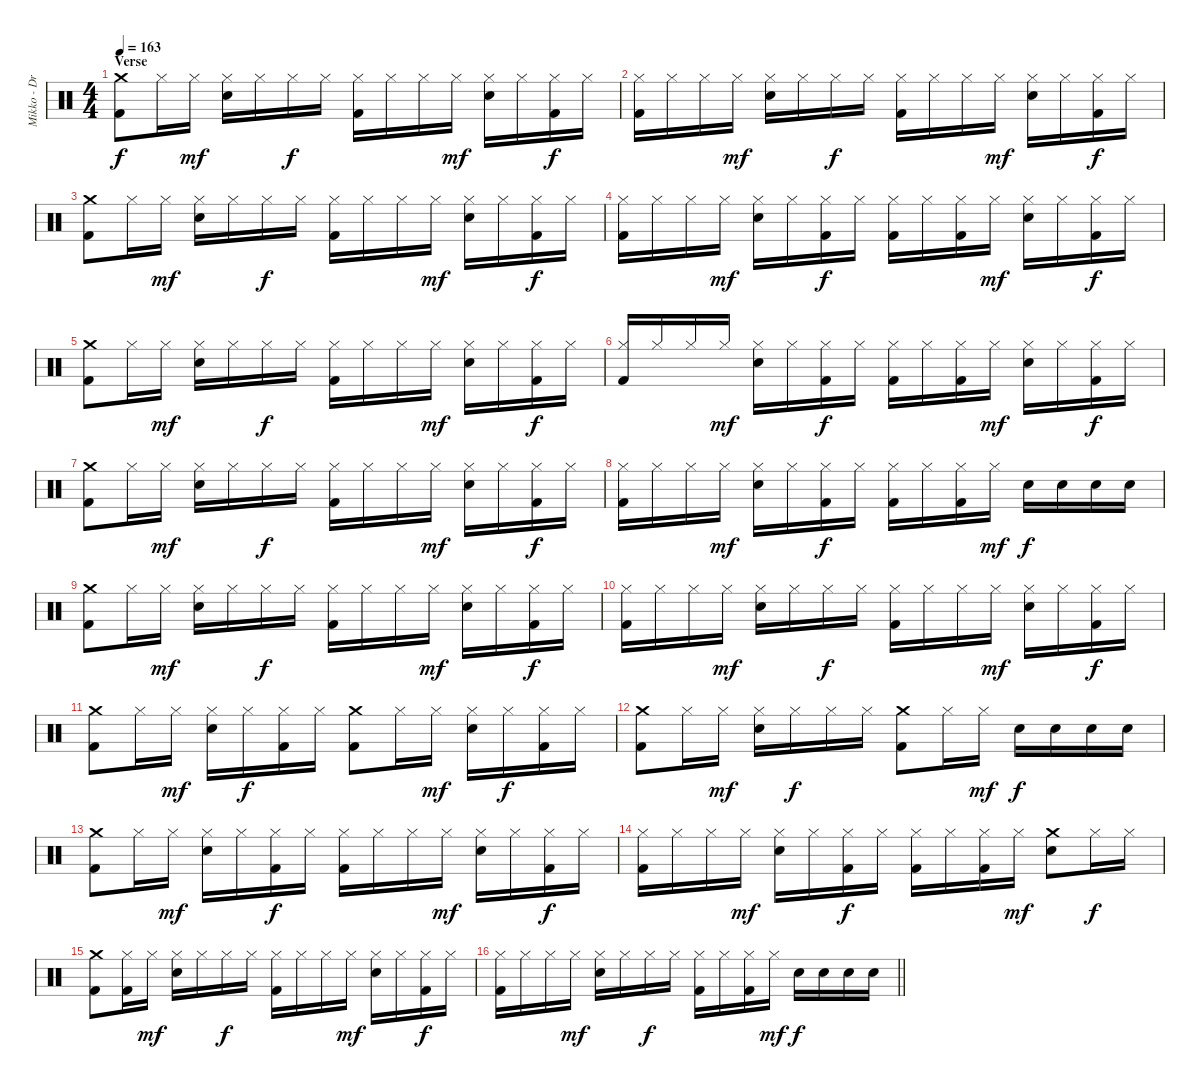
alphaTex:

\track ("Mikko - Drums" "Mikko - Dr") {instrument percussion}
\staff {score}
\articulation defaults
\ts (4 4)
\section ("" "Verse")
\tempo 163
\clef neutral
\ks c
("Crash medium (hit)" "Kick (hit) 2").8{dy f} "Hi-Hat (closed)".16 "Hi-Hat (closed)".16{dy mf} ("Hi-Hat (closed)" "Snare (hit) 2").16 "Hi-Hat (closed)".16 "Hi-Hat (closed)".16{dy f} "Hi-Hat (closed)".16 ("Hi-Hat (closed)" "Kick (hit) 2").16 "Hi-Hat (closed)".16 "Hi-Hat (closed)".16 "Hi-Hat (closed)".16{dy mf} ("Hi-Hat (closed)" "Snare (hit) 2").16 "Hi-Hat (closed)".16 ("Hi-Hat (closed)" "Kick (hit) 2").16{dy f} "Hi-Hat (closed)".16 |
("Hi-Hat (closed)" "Kick (hit) 2").16 "Hi-Hat (closed)".16 "Hi-Hat (closed)".16 "Hi-Hat (closed)".16{dy mf} ("Hi-Hat (closed)" "Snare (hit) 2").16 "Hi-Hat (closed)".16 "Hi-Hat (closed)".16{dy f} "Hi-Hat (closed)".16 ("Hi-Hat (closed)" "Kick (hit) 2").16 "Hi-Hat (closed)".16 "Hi-Hat (closed)".16 "Hi-Hat (closed)".16{dy mf} ("Hi-Hat (closed)" "Snare (hit) 2").16 "Hi-Hat (closed)".16 ("Hi-Hat (closed)" "Kick (hit) 2").16{dy f} "Hi-Hat (closed)".16 |
("Crash medium (hit)" "Kick (hit) 2").8 "Hi-Hat (closed)".16 "Hi-Hat (closed)".16{dy mf} ("Hi-Hat (closed)" "Snare (hit) 2").16 "Hi-Hat (closed)".16 "Hi-Hat (closed)".16{dy f} "Hi-Hat (closed)".16 ("Hi-Hat (closed)" "Kick (hit) 2").16 "Hi-Hat (closed)".16 "Hi-Hat (closed)".16 "Hi-Hat (closed)".16{dy mf} ("Hi-Hat (closed)" "Snare (hit) 2").16 "Hi-Hat (closed)".16 ("Hi-Hat (closed)" "Kick (hit) 2").16{dy f} "Hi-Hat (closed)".16 |
("Hi-Hat (closed)" "Kick (hit) 2").16 "Hi-Hat (closed)".16 "Hi-Hat (closed)".16 "Hi-Hat (closed)".16{dy mf} ("Hi-Hat (closed)" "Snare (hit) 2").16 "Hi-Hat (closed)".16 ("Hi-Hat (closed)" "Kick (hit) 2").16{dy f} "Hi-Hat (closed)".16 ("Hi-Hat (closed)" "Kick (hit) 2").16 "Hi-Hat (closed)".16 ("Hi-Hat (closed)" "Kick (hit) 2").16 "Hi-Hat (closed)".16{dy mf} ("Hi-Hat (closed)" "Snare (hit) 2").16 "Hi-Hat (closed)".16 ("Hi-Hat (closed)" "Kick (hit) 2").16{dy f} "Hi-Hat (closed)".16 |
("Crash medium (hit)" "Kick (hit) 2").8 "Hi-Hat (closed)".16 "Hi-Hat (closed)".16{dy mf} ("Hi-Hat (closed)" "Snare (hit) 2").16 "Hi-Hat (closed)".16 "Hi-Hat (closed)".16{dy f} "Hi-Hat (closed)".16 ("Hi-Hat (closed)" "Kick (hit) 2").16 "Hi-Hat (closed)".16 "Hi-Hat (closed)".16 "Hi-Hat (closed)".16{dy mf} ("Hi-Hat (closed)" "Snare (hit) 2").16 "Hi-Hat (closed)".16 ("Hi-Hat (closed)" "Kick (hit) 2").16{dy f} "Hi-Hat (closed)".16 |
("Hi-Hat (closed)" "Kick (hit) 2").16{beam Up} "Hi-Hat (closed)".16{beam Up} "Hi-Hat (closed)".16{beam Up} "Hi-Hat (closed)".16{dy mf beam Up} ("Hi-Hat (closed)" "Snare (hit) 2").16 "Hi-Hat (closed)".16 ("Hi-Hat (closed)" "Kick (hit) 2").16{dy f} "Hi-Hat (closed)".16 ("Hi-Hat (closed)" "Kick (hit) 2").16 "Hi-Hat (closed)".16 ("Hi-Hat (closed)" "Kick (hit) 2").16 "Hi-Hat (closed)".16{dy mf} ("Hi-Hat (closed)" "Snare (hit) 2").16 "Hi-Hat (closed)".16 ("Hi-Hat (closed)" "Kick (hit) 2").16{dy f} "Hi-Hat (closed)".16 |
("Crash medium (hit)" "Kick (hit) 2").8 "Hi-Hat (closed)".16 "Hi-Hat (closed)".16{dy mf} ("Hi-Hat (closed)" "Snare (hit) 2").16 "Hi-Hat (closed)".16 "Hi-Hat (closed)".16{dy f} "Hi-Hat (closed)".16 ("Hi-Hat (closed)" "Kick (hit) 2").16 "Hi-Hat (closed)".16 "Hi-Hat (closed)".16 "Hi-Hat (closed)".16{dy mf} ("Hi-Hat (closed)" "Snare (hit) 2").16 "Hi-Hat (closed)".16 ("Hi-Hat (closed)" "Kick (hit) 2").16{dy f} "Hi-Hat (closed)".16 |
("Hi-Hat (closed)" "Kick (hit) 2").16 "Hi-Hat (closed)".16 "Hi-Hat (closed)".16 "Hi-Hat (closed)".16{dy mf} ("Hi-Hat (closed)" "Snare (hit) 2").16 "Hi-Hat (closed)".16 ("Hi-Hat (closed)" "Kick (hit) 2").16{dy f} "Hi-Hat (closed)".16 ("Hi-Hat (closed)" "Kick (hit) 2").16 "Hi-Hat (closed)".16 ("Hi-Hat (closed)" "Kick (hit) 2").16 "Hi-Hat (closed)".16{dy mf} "Snare (hit) 2".16{dy f} "Snare (hit) 2".16 "Snare (hit) 2".16 "Snare (hit) 2".16 |
("Crash medium (hit)" "Kick (hit) 2").8 "Hi-Hat (closed)".16 "Hi-Hat (closed)".16{dy mf} ("Hi-Hat (closed)" "Snare (hit) 2").16 "Hi-Hat (closed)".16 "Hi-Hat (closed)".16{dy f} "Hi-Hat (closed)".16 ("Hi-Hat (closed)" "Kick (hit) 2").16 "Hi-Hat (closed)".16 "Hi-Hat (closed)".16 "Hi-Hat (closed)".16{dy mf} ("Hi-Hat (closed)" "Snare (hit) 2").16 "Hi-Hat (closed)".16 ("Hi-Hat (closed)" "Kick (hit) 2").16{dy f} "Hi-Hat (closed)".16 |
("Hi-Hat (closed)" "Kick (hit) 2").16 "Hi-Hat (closed)".16 "Hi-Hat (closed)".16 "Hi-Hat (closed)".16{dy mf} ("Hi-Hat (closed)" "Snare (hit) 2").16 "Hi-Hat (closed)".16 "Hi-Hat (closed)".16{dy f} "Hi-Hat (closed)".16 ("Hi-Hat (closed)" "Kick (hit) 2").16 "Hi-Hat (closed)".16 "Hi-Hat (closed)".16 "Hi-Hat (closed)".16{dy mf} ("Hi-Hat (closed)" "Snare (hit) 2").16 "Hi-Hat (closed)".16 ("Hi-Hat (closed)" "Kick (hit) 2").16{dy f} "Hi-Hat (closed)".16 |
("Crash medium (hit)" "Kick (hit) 2").8 "Hi-Hat (closed)".16 "Hi-Hat (closed)".16{dy mf} ("Hi-Hat (closed)" "Snare (hit) 2").16 "Hi-Hat (closed)".16{dy f} ("Hi-Hat (closed)" "Kick (hit) 2").16 "Hi-Hat (closed)".16 ("Crash medium (hit)" "Kick (hit) 2").8 "Hi-Hat (closed)".16 "Hi-Hat (closed)".16{dy mf} ("Hi-Hat (closed)" "Snare (hit) 2").16 "Hi-Hat (closed)".16{dy f} ("Hi-Hat (closed)" "Kick (hit) 2").16 "Hi-Hat (closed)".16 |
("Crash medium (hit)" "Kick (hit) 2").8 "Hi-Hat (closed)".16 "Hi-Hat (closed)".16{dy mf} ("Hi-Hat (closed)" "Snare (hit) 2").16 "Hi-Hat (closed)".16{dy f} "Hi-Hat (closed)".16 "Hi-Hat (closed)".16 ("Crash medium (hit)" "Kick (hit) 2").8 "Hi-Hat (closed)".16 "Hi-Hat (closed)".16{dy mf} "Snare (hit) 2".16{dy f} "Snare (hit) 2".16 "Snare (hit) 2".16 "Snare (hit) 2".16 |
("Crash medium (hit)" "Kick (hit) 2").8 "Hi-Hat (closed)".16 "Hi-Hat (closed)".16{dy mf} ("Hi-Hat (closed)" "Snare (hit) 2").16 "Hi-Hat (closed)".16 ("Hi-Hat (closed)" "Kick (hit) 2").16{dy f} "Hi-Hat (closed)".16 ("Hi-Hat (closed)" "Kick (hit) 2").16 "Hi-Hat (closed)".16 "Hi-Hat (closed)".16 "Hi-Hat (closed)".16{dy mf} ("Hi-Hat (closed)" "Snare (hit) 2").16 "Hi-Hat (closed)".16 ("Hi-Hat (closed)" "Kick (hit) 2").16{dy f} "Hi-Hat (closed)".16 |
("Hi-Hat (closed)" "Kick (hit) 2").16 "Hi-Hat (closed)".16 "Hi-Hat (closed)".16 "Hi-Hat (closed)".16{dy mf} ("Hi-Hat (closed)" "Snare (hit) 2").16 "Hi-Hat (closed)".16 ("Hi-Hat (closed)" "Kick (hit) 2").16{dy f} "Hi-Hat (closed)".16 ("Hi-Hat (closed)" "Kick (hit) 2").16 "Hi-Hat (closed)".16 ("Hi-Hat (closed)" "Kick (hit) 2").16 "Hi-Hat (closed)".16{dy mf} ("Crash medium (hit)" "Snare (hit) 2").8 "Hi-Hat (closed)".16{dy f} "Hi-Hat (closed)".16 |
("Crash medium (hit)" "Kick (hit) 2").8 ("Hi-Hat (closed)" "Kick (hit) 2").16 "Hi-Hat (closed)".16{dy mf} ("Hi-Hat (closed)" "Snare (hit) 2").16 "Hi-Hat (closed)".16 "Hi-Hat (closed)".16{dy f} "Hi-Hat (closed)".16 ("Hi-Hat (closed)" "Kick (hit) 2").16 "Hi-Hat (closed)".16 "Hi-Hat (closed)".16 "Hi-Hat (closed)".16{dy mf} ("Hi-Hat (closed)" "Snare (hit) 2").16 "Hi-Hat (closed)".16 ("Hi-Hat (closed)" "Kick (hit) 2").16{dy f} "Hi-Hat (closed)".16 |
\barLineRight lightlight
("Hi-Hat (closed)" "Kick (hit) 2").16 "Hi-Hat (closed)".16 "Hi-Hat (closed)".16 "Hi-Hat (closed)".16{dy mf} ("Hi-Hat (closed)" "Snare (hit) 2").16 "Hi-Hat (closed)".16 "Hi-Hat (closed)".16{dy f} "Hi-Hat (closed)".16 ("Hi-Hat (closed)" "Kick (hit) 2").16 "Hi-Hat (closed)".16 ("Hi-Hat (closed)" "Kick (hit) 2").16 "Hi-Hat (closed)".16{dy mf} "Snare (hit) 2".16{dy f} "Snare (hit) 2".16 "Snare (hit) 2".16 "Snare (hit) 2".16
